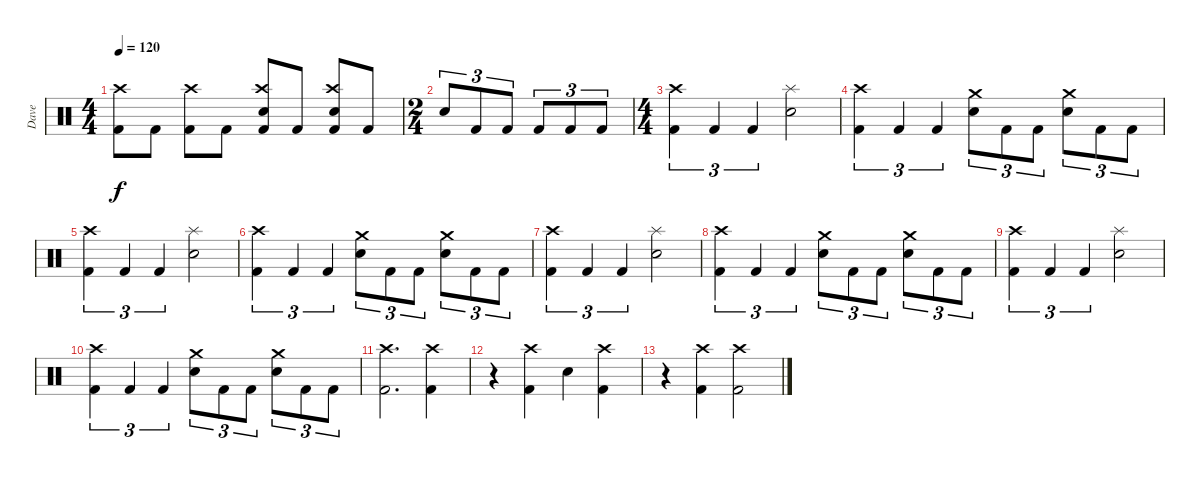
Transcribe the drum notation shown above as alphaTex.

\track ("Dave" "Dave") {instrument percussion}
\staff {score}
\articulation defaults
\ts (4 4)
\tempo 120
\clef neutral
\ks c
("Kick (hit) 2" "Crash high (hit)").8{dy f} "Kick (hit) 2".8 ("Kick (hit) 2" "Crash high (hit)").8 "Kick (hit) 2".8 ("Kick (hit) 2" "Snare (hit) 2" "Crash high (hit)").8 "Kick (hit) 2".8 ("Kick (hit) 2" "Snare (hit) 2" "Crash high (hit)").8 "Kick (hit) 2".8 |
\ts (2 4)
"Snare (hit) 2".8{tu (3 2)} "Kick (hit) 2".8{tu (3 2)} "Kick (hit) 2".8{tu (3 2)} "Kick (hit) 2".8{tu (3 2)} "Kick (hit) 2".8{tu (3 2)} "Kick (hit) 2".8{tu (3 2)} |
\ts (4 4)
("Kick (hit) 2" "Crash high (hit)").4{tu (3 2)} "Kick (hit) 2".4{tu (3 2)} "Kick (hit) 2".4{tu (3 2)} ("Snare (hit) 2" "Splash (hit)").2 |
("Kick (hit) 2" "Crash high (hit)").4{tu (3 2)} "Kick (hit) 2".4{tu (3 2)} "Kick (hit) 2".4{tu (3 2)} ("Snare (hit) 2" "Crash medium (hit)").8{tu (3 2)} "Kick (hit) 2".8{tu (3 2)} "Kick (hit) 2".8{tu (3 2)} ("Snare (hit) 2" "Crash medium (hit)").8{tu (3 2)} "Kick (hit) 2".8{tu (3 2)} "Kick (hit) 2".8{tu (3 2)} |
("Kick (hit) 2" "Crash high (hit)").4{tu (3 2)} "Kick (hit) 2".4{tu (3 2)} "Kick (hit) 2".4{tu (3 2)} ("Snare (hit) 2" "Splash (hit)").2 |
("Kick (hit) 2" "Crash high (hit)").4{tu (3 2)} "Kick (hit) 2".4{tu (3 2)} "Kick (hit) 2".4{tu (3 2)} ("Snare (hit) 2" "Crash medium (hit)").8{tu (3 2)} "Kick (hit) 2".8{tu (3 2)} "Kick (hit) 2".8{tu (3 2)} ("Snare (hit) 2" "Crash medium (hit)").8{tu (3 2)} "Kick (hit) 2".8{tu (3 2)} "Kick (hit) 2".8{tu (3 2)} |
("Kick (hit) 2" "Crash high (hit)").4{tu (3 2)} "Kick (hit) 2".4{tu (3 2)} "Kick (hit) 2".4{tu (3 2)} ("Snare (hit) 2" "Splash (hit)").2 |
("Kick (hit) 2" "Crash high (hit)").4{tu (3 2)} "Kick (hit) 2".4{tu (3 2)} "Kick (hit) 2".4{tu (3 2)} ("Snare (hit) 2" "Crash medium (hit)").8{tu (3 2)} "Kick (hit) 2".8{tu (3 2)} "Kick (hit) 2".8{tu (3 2)} ("Snare (hit) 2" "Crash medium (hit)").8{tu (3 2)} "Kick (hit) 2".8{tu (3 2)} "Kick (hit) 2".8{tu (3 2)} |
("Kick (hit) 2" "Crash high (hit)").4{tu (3 2)} "Kick (hit) 2".4{tu (3 2)} "Kick (hit) 2".4{tu (3 2)} ("Snare (hit) 2" "Splash (hit)").2 |
("Kick (hit) 2" "Crash high (hit)").4{tu (3 2)} "Kick (hit) 2".4{tu (3 2)} "Kick (hit) 2".4{tu (3 2)} ("Snare (hit) 2" "Crash medium (hit)").8{tu (3 2)} "Kick (hit) 2".8{tu (3 2)} "Kick (hit) 2".8{tu (3 2)} ("Snare (hit) 2" "Crash medium (hit)").8{tu (3 2)} "Kick (hit) 2".8{tu (3 2)} "Kick (hit) 2".8{tu (3 2)} |
("Kick (hit) 2" "Crash high (hit)").2{d} ("Kick (hit) 2" "Crash high (hit)").4 |
r.4 ("Kick (hit) 2" "Crash high (hit)").4 "Snare (hit) 2".4 ("Kick (hit) 2" "Crash high (hit)").4 |
r.4 ("Kick (hit) 2" "Crash high (hit)").4 ("Kick (hit) 2" "Crash high (hit)").2
